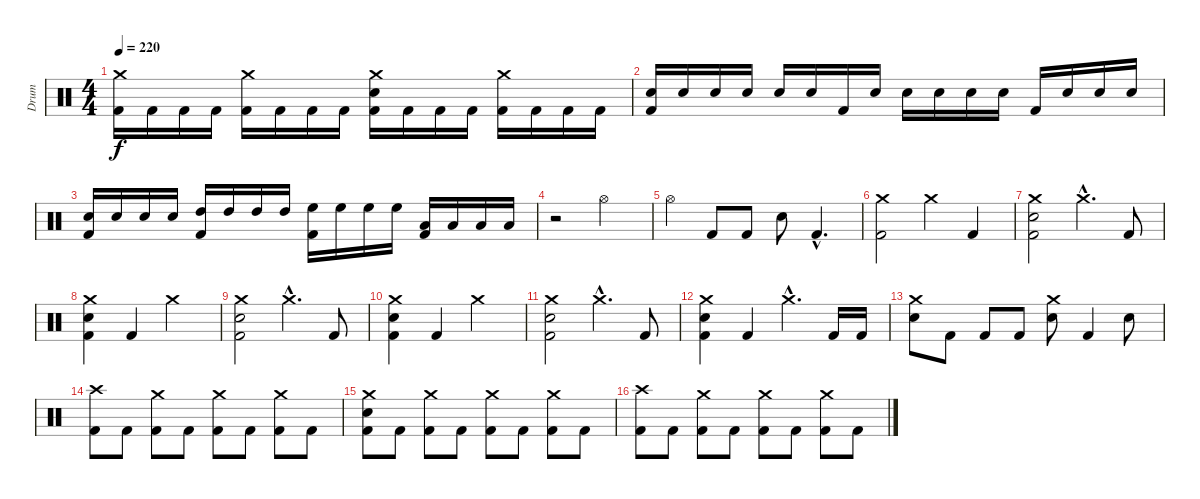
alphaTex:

\track ("Drum" "Drum") {instrument percussion}
\staff {score}
\articulation defaults
\ts (4 4)
\tempo 220
\clef neutral
\ks c
("Crash medium (hit)" "Kick (hit) 2").16{dy f} "Kick (hit) 2".16 "Kick (hit) 2".16 "Kick (hit) 2".16 ("Crash medium (hit)" "Kick (hit) 2").16 "Kick (hit) 2".16 "Kick (hit) 2".16 "Kick (hit) 2".16 ("Crash medium (hit)" "Electric Snare (hit)" "Kick (hit) 2").16 "Kick (hit) 2".16 "Kick (hit) 2".16 "Kick (hit) 2".16 ("Crash medium (hit)" "Kick (hit) 2").16 "Kick (hit) 2".16 "Kick (hit) 2".16 "Kick (hit) 2".16 |
("Electric Snare (hit)" "Kick (hit) 2").16 "Electric Snare (hit)".16 "Electric Snare (hit)".16 "Electric Snare (hit)".16 "Electric Snare (hit)".16 "Electric Snare (hit)".16 "Kick (hit) 2".16 "Electric Snare (hit)".16 "Electric Snare (hit)".16 "Electric Snare (hit)".16 "Electric Snare (hit)".16 "Electric Snare (hit)".16 "Kick (hit) 2".16 "Electric Snare (hit)".16 "Electric Snare (hit)".16 "Electric Snare (hit)".16 |
("Electric Snare (hit)" "Kick (hit) 2").16 "Electric Snare (hit)".16 "Electric Snare (hit)".16 "Electric Snare (hit)".16 ("High Tom (hit)" "Kick (hit) 2").16 "High Tom (hit)".16 "High Tom (hit)".16 "High Tom (hit)".16 ("High Floor Tom (hit)" "Kick (hit) 2").16 "High Floor Tom (hit)".16 "High Floor Tom (hit)".16 "High Floor Tom (hit)".16 ("Low Floor Tom (hit)" "Kick (hit) 2").16 "Low Floor Tom (hit)".16 "Low Floor Tom (hit)".16 "Low Floor Tom (hit)".16 |
r.2 "Hi-Hat (open)".2 |
"Hi-Hat (open)".4 "Kick (hit) 2".8 "Kick (hit) 2".8 "Electric Snare (hit)".8 "Kick (hit) 2"{hac}.4{d} |
("Crash medium (hit)" "Kick (hit) 2").2 "Crash medium (hit)".4 "Kick (hit) 2".4 |
("Crash medium (hit)" "Electric Snare (hit)" "Kick (hit) 2").2 "Crash medium (hit)"{hac}.4{d} "Kick (hit) 2".8 |
("Crash medium (hit)" "Electric Snare (hit)" "Kick (hit) 2").4 "Kick (hit) 2".4 "Crash medium (hit)".2 |
("Crash medium (hit)" "Electric Snare (hit)" "Kick (hit) 2").2 "Crash medium (hit)"{hac}.4{d} "Kick (hit) 2".8 |
("Crash medium (hit)" "Electric Snare (hit)" "Kick (hit) 2").4 "Kick (hit) 2".4 "Crash medium (hit)".2 |
("Crash medium (hit)" "Electric Snare (hit)" "Kick (hit) 2").2 "Crash medium (hit)"{hac}.4{d} "Kick (hit) 2".8 |
("Crash medium (hit)" "Electric Snare (hit)" "Kick (hit) 2").4 "Kick (hit) 2".4 "Crash medium (hit)"{hac}.4{d} "Kick (hit) 2".16 "Kick (hit) 2".16 |
("Crash medium (hit)" "Electric Snare (hit)").8 "Kick (hit) 2".8 "Kick (hit) 2".8 "Kick (hit) 2".8 ("Crash medium (hit)" "Electric Snare (hit)").8 "Kick (hit) 2".4 "Electric Snare (hit)".8 |
("Crash high (hit)" "Kick (hit) 2").8 "Kick (hit) 2".8 ("Crash medium (hit)" "Kick (hit) 2").8 "Kick (hit) 2".8 ("Crash medium (hit)" "Kick (hit) 2").8 "Kick (hit) 2".8 ("Crash medium (hit)" "Kick (hit) 2").8 "Kick (hit) 2".8 |
("Crash medium (hit)" "Electric Snare (hit)" "Kick (hit) 2").8 "Kick (hit) 2".8 ("Crash medium (hit)" "Kick (hit) 2").8 "Kick (hit) 2".8 ("Crash medium (hit)" "Kick (hit) 2").8 "Kick (hit) 2".8 ("Crash medium (hit)" "Kick (hit) 2").8 "Kick (hit) 2".8 |
("Crash high (hit)" "Kick (hit) 2").8 "Kick (hit) 2".8 ("Crash medium (hit)" "Kick (hit) 2").8 "Kick (hit) 2".8 ("Crash medium (hit)" "Kick (hit) 2").8 "Kick (hit) 2".8 ("Crash medium (hit)" "Kick (hit) 2").8 "Kick (hit) 2".8
